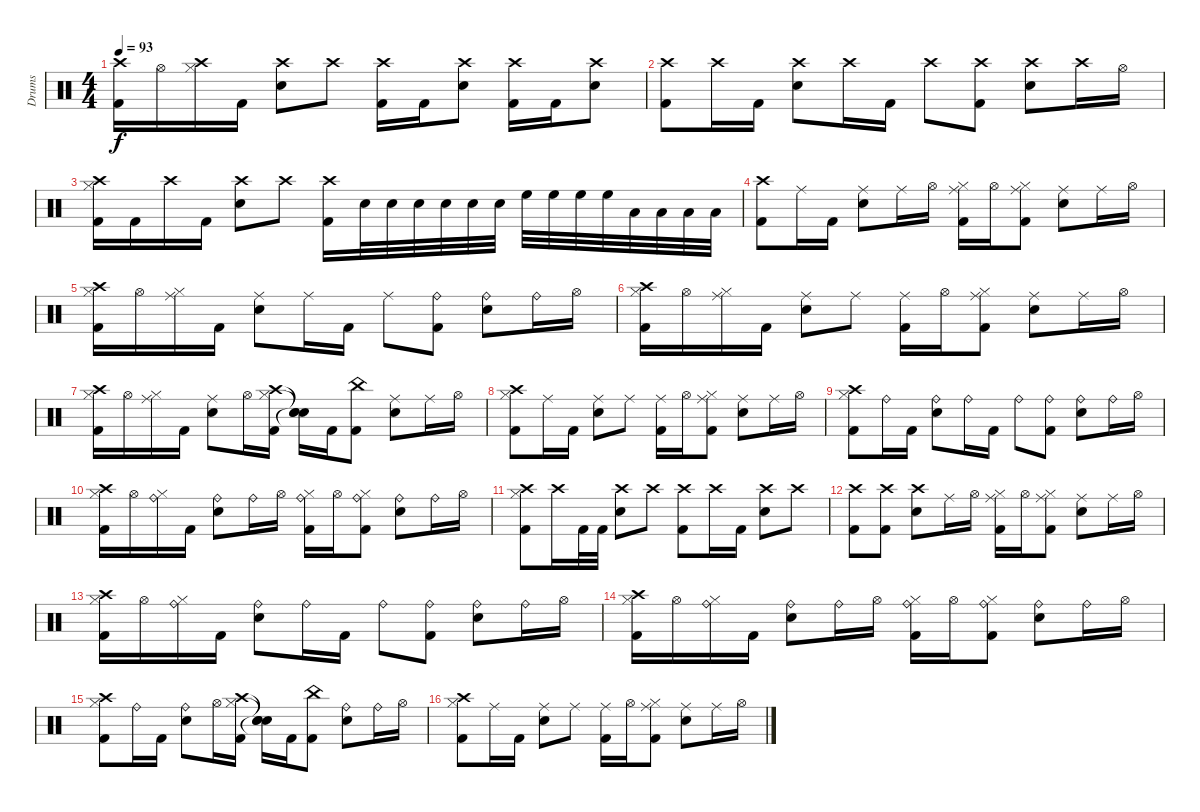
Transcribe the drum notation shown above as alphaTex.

\track ("Drums" "Drums") {instrument percussion}
\staff {score}
\articulation defaults
\ts (4 4)
\tempo 93
\clef neutral
\ks c
("Crash high (hit)" "Kick (hit) 2").16{dy f} "Hi-Hat (open)".16 ("Crash high (hit)" "Hi-Hat (closed)").16 "Kick (hit) 2".16 ("Crash high (hit)" "Electric Snare (hit)").8 "Crash high (hit)".8 ("Crash high (hit)" "Kick (hit) 2").16 "Kick (hit) 2".16 ("Crash high (hit)" "Electric Snare (hit)").8 ("Crash high (hit)" "Kick (hit) 2").16 "Kick (hit) 2".16 ("Crash high (hit)" "Electric Snare (hit)").8 |
("Crash high (hit)" "Kick (hit) 2").8 "Crash high (hit)".16 "Kick (hit) 2".16 ("Crash high (hit)" "Electric Snare (hit)").8 "Crash high (hit)".16 "Kick (hit) 2".16 "Crash high (hit)".8 ("Crash high (hit)" "Kick (hit) 2").8 ("Crash high (hit)" "Electric Snare (hit)").8 "Crash high (hit)".16 "Hi-Hat (open)".16 |
("Crash high (hit)" "Hi-Hat (closed)" "Kick (hit) 2").16 "Kick (hit) 2".16 "Crash high (hit)".16 "Kick (hit) 2".16 ("Crash high (hit)" "Electric Snare (hit)").8 "Crash high (hit)".8 ("Crash high (hit)" "Kick (hit) 2").16 "Electric Snare (hit)".32 "Electric Snare (hit)".32 "Electric Snare (hit)".32 "Electric Snare (hit)".32 "Electric Snare (hit)".32 "Electric Snare (hit)".32 "High Floor Tom (hit)".32 "High Floor Tom (hit)".32 "High Floor Tom (hit)".32 "High Floor Tom (hit)".32 "Low Tom (hit)".32 "Low Tom (hit)".32 "Low Floor Tom (hit)".32 "Low Floor Tom (hit)".32 |
("Crash high (hit)" "Kick (hit) 2").8 "Ride (middle)".16 "Kick (hit) 2".16 ("Ride (middle)" "Electric Snare (hit)").8 "Ride (middle)".16 "Hi-Hat (open)".16 ("Ride (middle)" "Hi-Hat (closed)" "Kick (hit) 2").16 "Hi-Hat (open)".16 ("Ride (middle)" "Hi-Hat (closed)" "Kick (hit) 2").8 ("Ride (middle)" "Electric Snare (hit)").8 "Ride (middle)".16 "Hi-Hat (open)".16 |
("Crash high (hit)" "Hi-Hat (closed)" "Kick (hit) 2").16 "Hi-Hat (open)".16 ("Ride (middle)" "Hi-Hat (closed)").16 "Kick (hit) 2".16 ("Ride (middle)" "Electric Snare (hit)").8 "Ride (middle)".16 "Kick (hit) 2".16 "Ride (middle)".8 ("Ride (bell)" "Kick (hit) 2").8 ("Ride (bell)" "Electric Snare (hit)").8 "Ride (bell)".16 "Hi-Hat (open)".16 |
("Crash high (hit)" "Hi-Hat (closed)" "Kick (hit) 2").16 "Hi-Hat (open)".16 ("Ride (middle)" "Hi-Hat (closed)").16 "Kick (hit) 2".16 ("Ride (middle)" "Electric Snare (hit)").8 "Ride (middle)".8 ("Ride (middle)" "Kick (hit) 2").16 "Hi-Hat (open)".16 ("Ride (middle)" "Hi-Hat (closed)" "Kick (hit) 2").8 ("Ride (middle)" "Electric Snare (hit)").8 "Ride (middle)".16 "Hi-Hat (open)".16 |
("Crash high (hit)" "Hi-Hat (closed)" "Kick (hit) 2").16 "Hi-Hat (open)".16 ("Ride (middle)" "Hi-Hat (closed)").16 "Kick (hit) 2".16 ("Ride (middle)" "Electric Snare (hit)").8 "Hi-Hat (open)".16 ("Crash high (hit)" "Hi-Hat (closed)" "Kick (hit) 2").16 ("Snare (hit)"{t} "Snare (hit)"{t} "Snare (hit)"{t}).16 "Kick (hit) 2".16 ("China (hit)" "Kick (hit) 2").8 ("Ride (middle)" "Electric Snare (hit)").8 "Ride (middle)".16 "Hi-Hat (open)".16 |
("Crash high (hit)" "Hi-Hat (closed)" "Kick (hit) 2").8 "Ride (middle)".16 "Kick (hit) 2".16 ("Ride (middle)" "Electric Snare (hit)").8 "Ride (middle)".8 ("Ride (middle)" "Kick (hit) 2").16 "Hi-Hat (open)".16 ("Ride (middle)" "Hi-Hat (closed)" "Kick (hit) 2").8 ("Ride (middle)" "Electric Snare (hit)").8 "Ride (middle)".16 "Hi-Hat (open)".16 |
("Crash high (hit)" "Hi-Hat (closed)" "Kick (hit) 2").8 "Ride (bell)".16 "Kick (hit) 2".16 ("Ride (bell)" "Electric Snare (hit)").8 "Ride (bell)".16 "Kick (hit) 2".16 "Ride (bell)".8 ("Ride (bell)" "Kick (hit) 2").8 ("Ride (bell)" "Electric Snare (hit)").8 "Ride (bell)".16 "Hi-Hat (open)".16 |
("Crash high (hit)" "Hi-Hat (closed)" "Kick (hit) 2").16 "Hi-Hat (open)".16 ("Ride (bell)" "Hi-Hat (closed)").16 "Kick (hit) 2".16 ("Ride (bell)" "Electric Snare (hit)").8 "Ride (bell)".16 "Hi-Hat (open)".16 ("Ride (bell)" "Hi-Hat (closed)" "Kick (hit) 2").16 "Hi-Hat (open)".16 ("Ride (bell)" "Hi-Hat (closed)" "Kick (hit) 2").8 ("Ride (bell)" "Electric Snare (hit)").8 "Ride (bell)".16 "Hi-Hat (open)".16 |
("Crash high (hit)" "Hi-Hat (closed)" "Kick (hit) 2").8 "Crash high (hit)".16 "Kick (hit) 2".32 "Kick (hit) 2".32 ("Crash high (hit)" "Electric Snare (hit)").8 "Crash high (hit)".8 ("Crash high (hit)" "Kick (hit) 2").8 "Crash high (hit)".16 "Kick (hit) 2".16 ("Crash high (hit)" "Electric Snare (hit)").8 "Crash high (hit)".8 |
("Crash high (hit)" "Kick (hit) 2").8 ("Crash high (hit)" "Kick (hit) 2").8 ("Crash high (hit)" "Electric Snare (hit)").8 "Ride (middle)".16 "Hi-Hat (open)".16 ("Ride (middle)" "Hi-Hat (closed)" "Kick (hit) 2").16 "Hi-Hat (open)".16 ("Ride (middle)" "Hi-Hat (closed)" "Kick (hit) 2").8 ("Ride (middle)" "Electric Snare (hit)").8 "Ride (middle)".16 "Hi-Hat (open)".16 |
("Crash high (hit)" "Hi-Hat (closed)" "Kick (hit) 2").16 "Hi-Hat (open)".16 ("Ride (bell)" "Hi-Hat (closed)").16 "Kick (hit) 2".16 ("Ride (bell)" "Electric Snare (hit)").8 "Ride (bell)".16 "Kick (hit) 2".16 "Ride (bell)".8 ("Ride (bell)" "Kick (hit) 2").8 ("Ride (bell)" "Electric Snare (hit)").8 "Ride (bell)".16 "Hi-Hat (open)".16 |
("Crash high (hit)" "Hi-Hat (closed)" "Kick (hit) 2").16 "Hi-Hat (open)".16 ("Ride (bell)" "Hi-Hat (closed)").16 "Kick (hit) 2".16 ("Ride (bell)" "Electric Snare (hit)").8 "Ride (bell)".16 "Hi-Hat (open)".16 ("Ride (bell)" "Hi-Hat (closed)" "Kick (hit) 2").16 "Hi-Hat (open)".16 ("Ride (bell)" "Hi-Hat (closed)" "Kick (hit) 2").8 ("Ride (bell)" "Electric Snare (hit)").8 "Ride (bell)".16 "Hi-Hat (open)".16 |
("Crash high (hit)" "Hi-Hat (closed)" "Kick (hit) 2").8 "Ride (bell)".16 "Kick (hit) 2".16 ("Ride (bell)" "Electric Snare (hit)").8 "Hi-Hat (open)".16 ("Crash high (hit)" "Hi-Hat (closed)" "Kick (hit) 2").16 ("Snare (hit)"{t} "Snare (hit)"{t} "Snare (hit)"{t}).16 "Kick (hit) 2".16 ("China (hit)" "Kick (hit) 2").8 ("Ride (bell)" "Electric Snare (hit)").8 "Ride (bell)".16 "Hi-Hat (open)".16 |
("Crash high (hit)" "Hi-Hat (closed)" "Kick (hit) 2").8 "Ride (middle)".16 "Kick (hit) 2".16 ("Ride (middle)" "Electric Snare (hit)").8 "Ride (middle)".8 ("Ride (middle)" "Kick (hit) 2").16 "Hi-Hat (open)".16 ("Ride (middle)" "Hi-Hat (closed)" "Kick (hit) 2").8 ("Ride (middle)" "Electric Snare (hit)").8 "Ride (middle)".16 "Hi-Hat (open)".16
